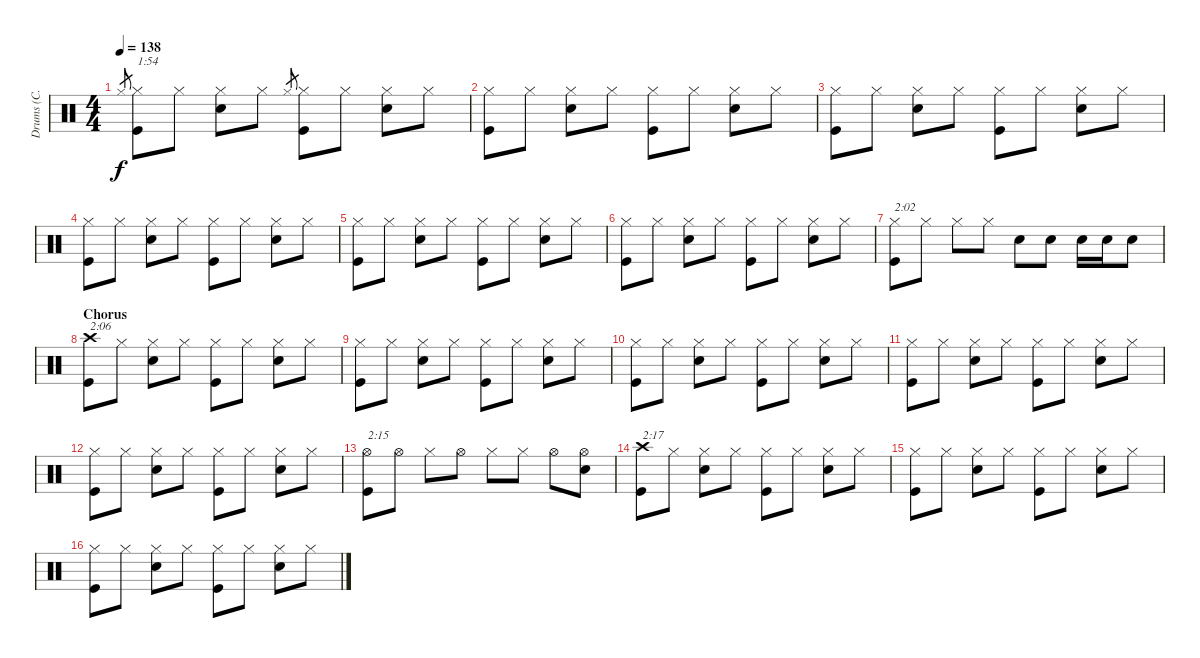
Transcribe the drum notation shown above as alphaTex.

\track ("Drums (C. Watts)" "Drums (C. ") {instrument percussion}
\staff {score}
\articulation defaults
\ts (4 4)
\tempo 138
\clef neutral
\ks c "Hi-Hat (closed)".8{gr dy f}
("Hi-Hat (closed)" "Kick (hit)").8{txt "1:54"} "Hi-Hat (closed)".8 ("Hi-Hat (closed)" "Snare (hit) 2").8 "Hi-Hat (closed)".8 "Hi-Hat (closed)".8{gr} ("Hi-Hat (closed)" "Kick (hit)").8 "Hi-Hat (closed)".8 ("Hi-Hat (closed)" "Snare (hit) 2").8 "Hi-Hat (closed)".8 |
("Hi-Hat (closed)" "Kick (hit)").8 "Hi-Hat (closed)".8 ("Hi-Hat (closed)" "Snare (hit) 2").8 "Hi-Hat (closed)".8 ("Hi-Hat (closed)" "Kick (hit)").8 "Hi-Hat (closed)".8 ("Hi-Hat (closed)" "Snare (hit) 2").8 "Hi-Hat (closed)".8 |
("Hi-Hat (closed)" "Kick (hit)").8 "Hi-Hat (closed)".8 ("Hi-Hat (closed)" "Snare (hit) 2").8 "Hi-Hat (closed)".8 ("Hi-Hat (closed)" "Kick (hit)").8 "Hi-Hat (closed)".8 ("Hi-Hat (closed)" "Snare (hit) 2").8 "Hi-Hat (closed)".8 |
("Hi-Hat (closed)" "Kick (hit)").8 "Hi-Hat (closed)".8 ("Hi-Hat (closed)" "Snare (hit) 2").8 "Hi-Hat (closed)".8 ("Hi-Hat (closed)" "Kick (hit)").8 "Hi-Hat (closed)".8 ("Hi-Hat (closed)" "Snare (hit) 2").8 "Hi-Hat (closed)".8 |
("Hi-Hat (closed)" "Kick (hit)").8 "Hi-Hat (closed)".8 ("Hi-Hat (closed)" "Snare (hit) 2").8 "Hi-Hat (closed)".8 ("Hi-Hat (closed)" "Kick (hit)").8 "Hi-Hat (closed)".8 ("Hi-Hat (closed)" "Snare (hit) 2").8 "Hi-Hat (closed)".8 |
("Hi-Hat (closed)" "Kick (hit)").8 "Hi-Hat (closed)".8 ("Hi-Hat (closed)" "Snare (hit) 2").8 "Hi-Hat (closed)".8 ("Hi-Hat (closed)" "Kick (hit)").8 "Hi-Hat (closed)".8 ("Hi-Hat (closed)" "Snare (hit) 2").8 "Hi-Hat (closed)".8 |
("Hi-Hat (closed)" "Kick (hit)").8{txt "2:02"} "Hi-Hat (closed)".8 "Hi-Hat (closed)".8 "Hi-Hat (closed)".8 "Snare (hit) 2".8 "Snare (hit) 2".8 "Snare (hit) 2".16 "Snare (hit) 2".16 "Snare (hit) 2".8 |
\section ("" "Chorus")
("Crash high (hit)" "Kick (hit)").8{txt "2:06"} "Hi-Hat (closed)".8 ("Hi-Hat (closed)" "Snare (hit) 2").8 "Hi-Hat (closed)".8 ("Hi-Hat (closed)" "Kick (hit)").8 "Hi-Hat (closed)".8 ("Hi-Hat (closed)" "Snare (hit) 2").8 "Hi-Hat (closed)".8 |
("Hi-Hat (closed)" "Kick (hit)").8 "Hi-Hat (closed)".8 ("Hi-Hat (closed)" "Snare (hit) 2").8 "Hi-Hat (closed)".8 ("Hi-Hat (closed)" "Kick (hit)").8 "Hi-Hat (closed)".8 ("Hi-Hat (closed)" "Snare (hit) 2").8 "Hi-Hat (closed)".8 |
("Hi-Hat (closed)" "Kick (hit)").8 "Hi-Hat (closed)".8 ("Hi-Hat (closed)" "Snare (hit) 2").8 "Hi-Hat (closed)".8 ("Hi-Hat (closed)" "Kick (hit)").8 "Hi-Hat (closed)".8 ("Hi-Hat (closed)" "Snare (hit) 2").8 "Hi-Hat (closed)".8 |
("Hi-Hat (closed)" "Kick (hit)").8 "Hi-Hat (closed)".8 ("Hi-Hat (closed)" "Snare (hit) 2").8 "Hi-Hat (closed)".8 ("Hi-Hat (closed)" "Kick (hit)").8 "Hi-Hat (closed)".8 ("Hi-Hat (closed)" "Snare (hit) 2").8 "Hi-Hat (closed)".8 |
("Hi-Hat (closed)" "Kick (hit)").8 "Hi-Hat (closed)".8 ("Hi-Hat (closed)" "Snare (hit) 2").8 "Hi-Hat (closed)".8 ("Hi-Hat (closed)" "Kick (hit)").8 "Hi-Hat (closed)".8 ("Hi-Hat (closed)" "Snare (hit) 2").8 "Hi-Hat (closed)".8 |
("Hi-Hat (open)" "Kick (hit)").8{txt "2:15"} "Hi-Hat (open)".8 "Hi-Hat (closed)".8 "Hi-Hat (open)".8 "Hi-Hat (closed)".8 "Hi-Hat (closed)".8 "Hi-Hat (open)".8 ("Hi-Hat (open)" "Snare (hit) 2").8 |
("Crash high (hit)" "Kick (hit)").8{txt "2:17"} "Hi-Hat (closed)".8 ("Hi-Hat (closed)" "Snare (hit) 2").8 "Hi-Hat (closed)".8 ("Hi-Hat (closed)" "Kick (hit)").8 "Hi-Hat (closed)".8 ("Hi-Hat (closed)" "Snare (hit) 2").8 "Hi-Hat (closed)".8 |
("Hi-Hat (closed)" "Kick (hit)").8 "Hi-Hat (closed)".8 ("Hi-Hat (closed)" "Snare (hit) 2").8 "Hi-Hat (closed)".8 ("Hi-Hat (closed)" "Kick (hit)").8 "Hi-Hat (closed)".8 ("Hi-Hat (closed)" "Snare (hit) 2").8 "Hi-Hat (closed)".8 |
("Hi-Hat (closed)" "Kick (hit)").8 "Hi-Hat (closed)".8 ("Hi-Hat (closed)" "Snare (hit) 2").8 "Hi-Hat (closed)".8 ("Hi-Hat (closed)" "Kick (hit)").8 "Hi-Hat (closed)".8 ("Hi-Hat (closed)" "Snare (hit) 2").8 "Hi-Hat (closed)".8
